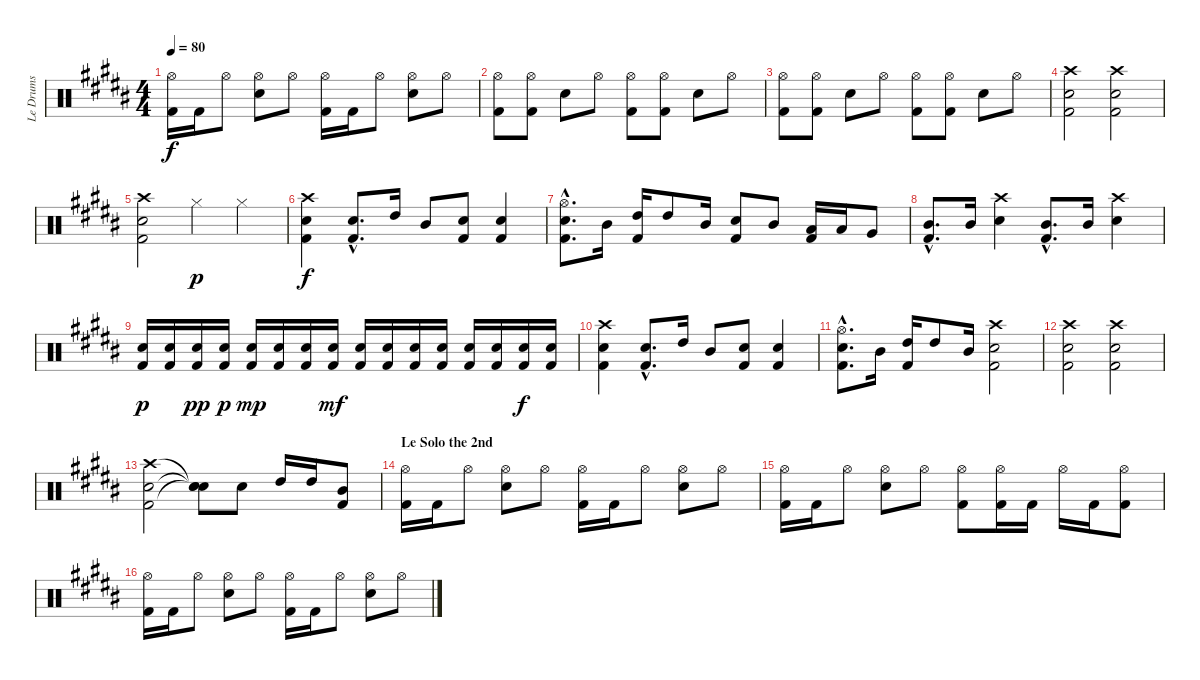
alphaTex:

\track ("Le Drums" "Le Drums") {instrument percussion}
\staff {score}
\articulation defaults
\ts (4 4)
\tempo 80
\clef neutral
\ks b
("Hi-Hat (open)" "Kick (hit) 2").16{dy f} "Kick (hit) 2".16 "Hi-Hat (open)".8 ("Hi-Hat (open)" "Snare (hit) 2").8 "Hi-Hat (open)".8 ("Hi-Hat (open)" "Kick (hit) 2").16 "Kick (hit) 2".16 "Hi-Hat (open)".8 ("Hi-Hat (open)" "Snare (hit) 2").8 "Hi-Hat (open)".8 |
("Hi-Hat (open)" "Kick (hit) 2").8 ("Hi-Hat (open)" "Kick (hit) 2").8 "Snare (hit) 2".8 "Hi-Hat (open)".8 ("Hi-Hat (open)" "Kick (hit) 2").8 ("Hi-Hat (open)" "Kick (hit) 2").8 "Snare (hit) 2".8 "Hi-Hat (open)".8 |
("Hi-Hat (open)" "Kick (hit) 2").8 ("Hi-Hat (open)" "Kick (hit) 2").8 "Snare (hit) 2".8 "Hi-Hat (open)".8 ("Hi-Hat (open)" "Kick (hit) 2").8 ("Hi-Hat (open)" "Kick (hit) 2").8 "Snare (hit) 2".8 "Hi-Hat (open)".8 |
("Crash high (hit)" "Snare (hit) 2" "Kick (hit) 2").2 ("Crash high (hit)" "Snare (hit) 2" "Kick (hit) 2").2 |
("Crash high (hit)" "Snare (hit) 2" "Kick (hit) 2").2 "Hi-Hat (closed)".4{dy p} "Hi-Hat (closed)".4 |
("Crash high (hit)" "Snare (hit) 2" "Kick (hit) 2").4{dy f} ("Snare (hit) 2"{hac} "Kick (hit) 2"{hac}).8{d} "High Tom (hit)".16 "Mid Tom (hit)".8 ("Snare (hit) 2" "Kick (hit) 2").8 ("Snare (hit) 2" "Kick (hit) 2").4 |
("Hi-Hat (open)"{hac} "Snare (hit) 2"{hac} "Kick (hit) 2"{hac}).8{d} "Mid Tom (hit)".16 ("High Tom (hit)" "Kick (hit) 2").16 "High Tom (hit)".8 "Mid Tom (hit)".16 ("Snare (hit) 2" "Kick (hit) 2").8 "Mid Tom (hit)".8 ("Low Tom (hit)" "Kick (hit) 2").16 "Low Tom (hit)".16 "Very Low Tom (hit)".8 |
("Mid Tom (hit)"{hac} "Kick (hit) 2"{hac}).8{d} "Mid Tom (hit)".16 ("Crash high (hit)" "Snare (hit) 2").4 ("Mid Tom (hit)"{hac} "Kick (hit) 2"{hac}).8{d} "Mid Tom (hit)".16 ("Crash high (hit)" "Snare (hit) 2").4 |
("Snare (hit) 2" "Kick (hit) 2").16{dy p} ("Snare (hit) 2" "Kick (hit) 2").16 ("Snare (hit) 2" "Kick (hit) 2").16{dy pp} ("Snare (hit) 2" "Kick (hit) 2").16{dy p} ("Snare (hit) 2" "Kick (hit) 2").16{dy mp} ("Snare (hit) 2" "Kick (hit) 2").16 ("Snare (hit) 2" "Kick (hit) 2").16 ("Snare (hit) 2" "Kick (hit) 2").16{dy mf} ("Snare (hit) 2" "Kick (hit) 2").16 ("Snare (hit) 2" "Kick (hit) 2").16 ("Snare (hit) 2" "Kick (hit) 2").16 ("Snare (hit) 2" "Kick (hit) 2").16 ("Snare (hit) 2" "Kick (hit) 2").16 ("Snare (hit) 2" "Kick (hit) 2").16 ("Snare (hit) 2" "Kick (hit) 2").16{dy f} ("Snare (hit) 2" "Kick (hit) 2").16 |
("Crash high (hit)" "Snare (hit) 2" "Kick (hit) 2").4 ("Snare (hit) 2"{hac} "Kick (hit) 2"{hac}).8{d} "High Tom (hit)".16 "Mid Tom (hit)".8 ("Snare (hit) 2" "Kick (hit) 2").8 ("Snare (hit) 2" "Kick (hit) 2").4 |
("Hi-Hat (open)"{hac} "Snare (hit) 2"{hac} "Kick (hit) 2"{hac}).8{d} "Mid Tom (hit)".16 ("High Tom (hit)" "Kick (hit) 2").16 "High Tom (hit)".8 "Mid Tom (hit)".16 ("Crash high (hit)" "Snare (hit) 2" "Kick (hit) 2").2 |
("Crash high (hit)" "Snare (hit) 2" "Kick (hit) 2").2 ("Crash high (hit)" "Snare (hit) 2" "Kick (hit) 2").2 |
("Crash high (hit)" "Snare (hit) 2" "Kick (hit) 2").2 ("Snare (hit)"{t} "Snare (hit)"{t} "Snare (hit)"{t}).8 "Snare (hit) 2".8 "High Tom (hit)".16 "High Tom (hit)".16 ("Mid Tom (hit)" "Kick (hit) 2").8 |
\section ("" "Le Solo the 2nd")
("Hi-Hat (open)" "Kick (hit) 2").16 "Kick (hit) 2".16 "Hi-Hat (open)".8 ("Hi-Hat (open)" "Snare (hit) 2").8 "Hi-Hat (open)".8 ("Hi-Hat (open)" "Kick (hit) 2").16 "Kick (hit) 2".16 "Hi-Hat (open)".8 ("Hi-Hat (open)" "Snare (hit) 2").8 "Hi-Hat (open)".8 |
("Hi-Hat (open)" "Kick (hit) 2").16 "Kick (hit) 2".16 "Hi-Hat (open)".8 ("Hi-Hat (open)" "Snare (hit) 2").8 "Hi-Hat (open)".8 ("Hi-Hat (open)" "Kick (hit) 2").8 ("Hi-Hat (open)" "Kick (hit) 2").16 "Kick (hit) 2".16 "Hi-Hat (open)".16 "Kick (hit) 2".16 ("Hi-Hat (open)" "Kick (hit) 2").8 |
("Hi-Hat (open)" "Kick (hit) 2").16 "Kick (hit) 2".16 "Hi-Hat (open)".8 ("Hi-Hat (open)" "Snare (hit) 2").8 "Hi-Hat (open)".8 ("Hi-Hat (open)" "Kick (hit) 2").16 "Kick (hit) 2".16 "Hi-Hat (open)".8 ("Hi-Hat (open)" "Snare (hit) 2").8 "Hi-Hat (open)".8
